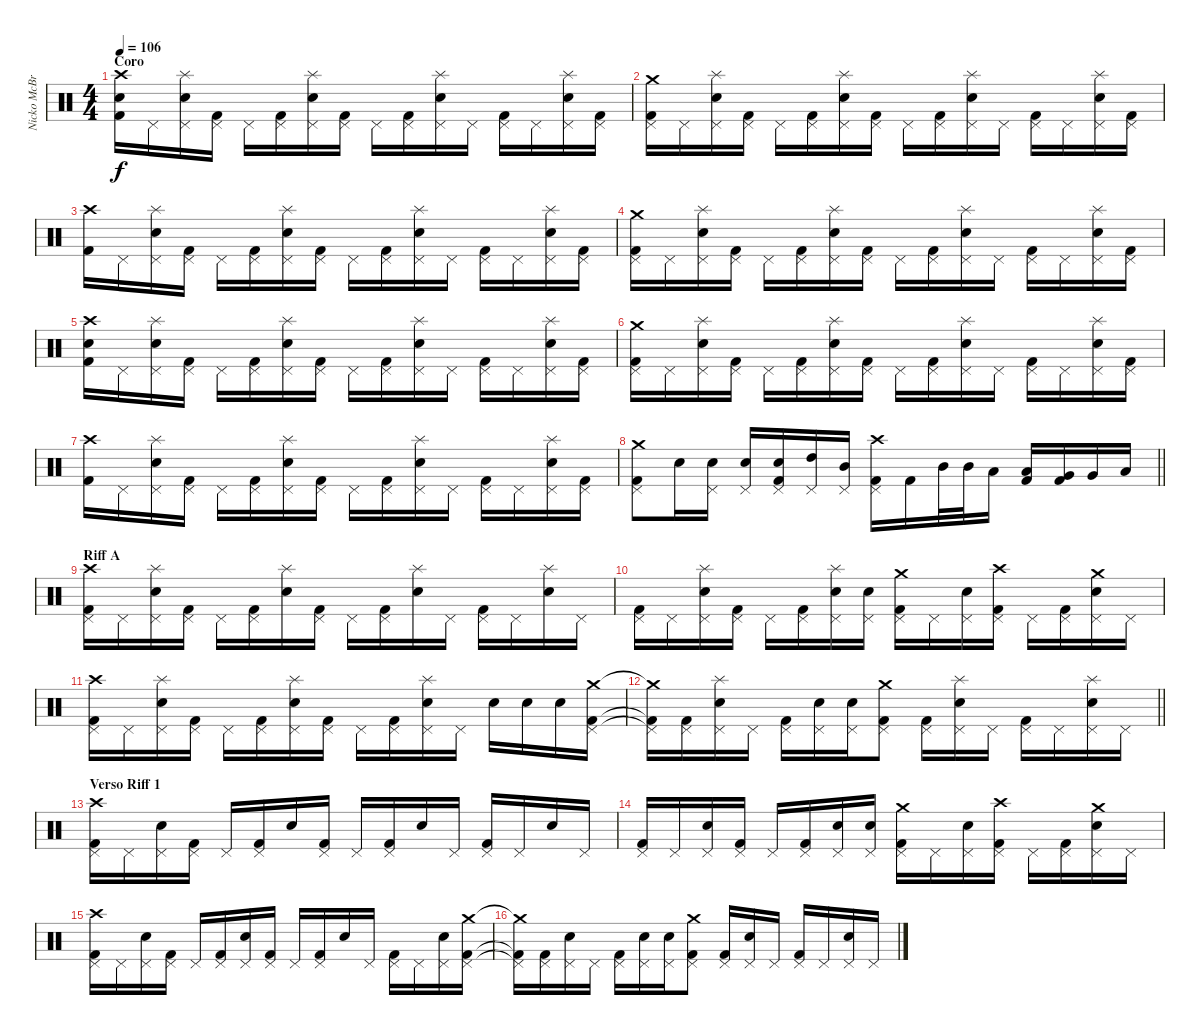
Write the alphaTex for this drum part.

\track ("Nicko McBrain" "Nicko McBr") {instrument percussion}
\staff {score}
\articulation defaults
\ts (4 4)
\section ("" "Coro")
\tempo 106
\clef neutral
\ks c
("Snare (hit) 2" "Crash high (hit)" "Kick (hit) 2").16{dy f} "Pedal Hi-Hat (hit)".16 ("Pedal Hi-Hat (hit)" "Snare (hit) 2" "Splash (hit)").16 ("Pedal Hi-Hat (hit)" "Kick (hit) 2").16 "Pedal Hi-Hat (hit)".16 ("Pedal Hi-Hat (hit)" "Kick (hit) 2").16 ("Pedal Hi-Hat (hit)" "Snare (hit) 2" "Splash (hit)").16 ("Pedal Hi-Hat (hit)" "Kick (hit) 2").16 "Pedal Hi-Hat (hit)".16 ("Pedal Hi-Hat (hit)" "Kick (hit) 2").16 ("Pedal Hi-Hat (hit)" "Snare (hit) 2" "Splash (hit)").16 "Pedal Hi-Hat (hit)".16 ("Pedal Hi-Hat (hit)" "Kick (hit) 2").16 "Pedal Hi-Hat (hit)".16 ("Pedal Hi-Hat (hit)" "Snare (hit) 2" "Splash (hit)").16 ("Pedal Hi-Hat (hit)" "Kick (hit) 2").16 |
("Pedal Hi-Hat (hit)" "Crash medium (hit)" "Kick (hit) 2").16 "Pedal Hi-Hat (hit)".16 ("Pedal Hi-Hat (hit)" "Snare (hit) 2" "Splash (hit)").16 ("Pedal Hi-Hat (hit)" "Kick (hit) 2").16 "Pedal Hi-Hat (hit)".16 ("Pedal Hi-Hat (hit)" "Kick (hit) 2").16 ("Pedal Hi-Hat (hit)" "Snare (hit) 2" "Splash (hit)").16 ("Pedal Hi-Hat (hit)" "Kick (hit) 2").16 "Pedal Hi-Hat (hit)".16 ("Pedal Hi-Hat (hit)" "Kick (hit) 2").16 ("Pedal Hi-Hat (hit)" "Snare (hit) 2" "Splash (hit)").16 "Pedal Hi-Hat (hit)".16 ("Pedal Hi-Hat (hit)" "Kick (hit) 2").16 "Pedal Hi-Hat (hit)".16 ("Pedal Hi-Hat (hit)" "Snare (hit) 2" "Splash (hit)").16 ("Pedal Hi-Hat (hit)" "Kick (hit) 2").16 |
("Crash high (hit)" "Kick (hit) 2").16 "Pedal Hi-Hat (hit)".16 ("Pedal Hi-Hat (hit)" "Snare (hit) 2" "Splash (hit)").16 ("Pedal Hi-Hat (hit)" "Kick (hit) 2").16 "Pedal Hi-Hat (hit)".16 ("Pedal Hi-Hat (hit)" "Kick (hit) 2").16 ("Pedal Hi-Hat (hit)" "Snare (hit) 2" "Splash (hit)").16 ("Pedal Hi-Hat (hit)" "Kick (hit) 2").16 "Pedal Hi-Hat (hit)".16 ("Pedal Hi-Hat (hit)" "Kick (hit) 2").16 ("Pedal Hi-Hat (hit)" "Snare (hit) 2" "Splash (hit)").16 "Pedal Hi-Hat (hit)".16 ("Pedal Hi-Hat (hit)" "Kick (hit) 2").16 "Pedal Hi-Hat (hit)".16 ("Pedal Hi-Hat (hit)" "Snare (hit) 2" "Splash (hit)").16 ("Pedal Hi-Hat (hit)" "Kick (hit) 2").16 |
("Pedal Hi-Hat (hit)" "Crash medium (hit)" "Kick (hit) 2").16 "Pedal Hi-Hat (hit)".16 ("Pedal Hi-Hat (hit)" "Snare (hit) 2" "Splash (hit)").16 ("Pedal Hi-Hat (hit)" "Kick (hit) 2").16 "Pedal Hi-Hat (hit)".16 ("Pedal Hi-Hat (hit)" "Kick (hit) 2").16 ("Pedal Hi-Hat (hit)" "Snare (hit) 2" "Splash (hit)").16 ("Pedal Hi-Hat (hit)" "Kick (hit) 2").16 "Pedal Hi-Hat (hit)".16 ("Pedal Hi-Hat (hit)" "Kick (hit) 2").16 ("Pedal Hi-Hat (hit)" "Snare (hit) 2" "Splash (hit)").16 "Pedal Hi-Hat (hit)".16 ("Pedal Hi-Hat (hit)" "Kick (hit) 2").16 "Pedal Hi-Hat (hit)".16 ("Pedal Hi-Hat (hit)" "Snare (hit) 2" "Splash (hit)").16 ("Pedal Hi-Hat (hit)" "Kick (hit) 2").16 |
("Snare (hit) 2" "Crash high (hit)" "Kick (hit) 2").16 "Pedal Hi-Hat (hit)".16 ("Pedal Hi-Hat (hit)" "Snare (hit) 2" "Splash (hit)").16 ("Pedal Hi-Hat (hit)" "Kick (hit) 2").16 "Pedal Hi-Hat (hit)".16 ("Pedal Hi-Hat (hit)" "Kick (hit) 2").16 ("Pedal Hi-Hat (hit)" "Snare (hit) 2" "Splash (hit)").16 ("Pedal Hi-Hat (hit)" "Kick (hit) 2").16 "Pedal Hi-Hat (hit)".16 ("Pedal Hi-Hat (hit)" "Kick (hit) 2").16 ("Pedal Hi-Hat (hit)" "Snare (hit) 2" "Splash (hit)").16 "Pedal Hi-Hat (hit)".16 ("Pedal Hi-Hat (hit)" "Kick (hit) 2").16 "Pedal Hi-Hat (hit)".16 ("Pedal Hi-Hat (hit)" "Snare (hit) 2" "Splash (hit)").16 ("Pedal Hi-Hat (hit)" "Kick (hit) 2").16 |
("Pedal Hi-Hat (hit)" "Crash medium (hit)" "Kick (hit) 2").16 "Pedal Hi-Hat (hit)".16 ("Pedal Hi-Hat (hit)" "Snare (hit) 2" "Splash (hit)").16 ("Pedal Hi-Hat (hit)" "Kick (hit) 2").16 "Pedal Hi-Hat (hit)".16 ("Pedal Hi-Hat (hit)" "Kick (hit) 2").16 ("Pedal Hi-Hat (hit)" "Snare (hit) 2" "Splash (hit)").16 ("Pedal Hi-Hat (hit)" "Kick (hit) 2").16 "Pedal Hi-Hat (hit)".16 ("Pedal Hi-Hat (hit)" "Kick (hit) 2").16 ("Pedal Hi-Hat (hit)" "Snare (hit) 2" "Splash (hit)").16 "Pedal Hi-Hat (hit)".16 ("Pedal Hi-Hat (hit)" "Kick (hit) 2").16 "Pedal Hi-Hat (hit)".16 ("Pedal Hi-Hat (hit)" "Snare (hit) 2" "Splash (hit)").16 ("Pedal Hi-Hat (hit)" "Kick (hit) 2").16 |
("Crash high (hit)" "Kick (hit) 2").16 "Pedal Hi-Hat (hit)".16 ("Pedal Hi-Hat (hit)" "Snare (hit) 2" "Splash (hit)").16 ("Pedal Hi-Hat (hit)" "Kick (hit) 2").16 "Pedal Hi-Hat (hit)".16 ("Pedal Hi-Hat (hit)" "Kick (hit) 2").16 ("Pedal Hi-Hat (hit)" "Snare (hit) 2" "Splash (hit)").16 ("Pedal Hi-Hat (hit)" "Kick (hit) 2").16 "Pedal Hi-Hat (hit)".16 ("Pedal Hi-Hat (hit)" "Kick (hit) 2").16 ("Pedal Hi-Hat (hit)" "Snare (hit) 2" "Splash (hit)").16 "Pedal Hi-Hat (hit)".16 ("Pedal Hi-Hat (hit)" "Kick (hit) 2").16 "Pedal Hi-Hat (hit)".16 ("Pedal Hi-Hat (hit)" "Snare (hit) 2" "Splash (hit)").16 ("Pedal Hi-Hat (hit)" "Kick (hit) 2").16 |
\barLineRight lightlight
("Pedal Hi-Hat (hit)" "Crash medium (hit)" "Kick (hit) 2").8 "Snare (hit) 2".16 ("Pedal Hi-Hat (hit)" "Snare (hit) 2").16 ("Pedal Hi-Hat (hit)" "Snare (hit) 2").16 ("Pedal Hi-Hat (hit)" "Snare (hit) 2" "Kick (hit) 2").16 ("Pedal Hi-Hat (hit)" "High Tom (hit)").16 ("Pedal Hi-Hat (hit)" "Mid Tom (hit)").16 ("Pedal Hi-Hat (hit)" "Crash high (hit)" "Kick (hit) 2").16 "Kick (hit) 2".16 "Mid Tom (hit)".32 "Mid Tom (hit)".32 "Low Tom (hit)".16 ("Low Tom (hit)" "Kick (hit) 2").16 ("Very Low Tom (hit)" "Kick (hit) 2").16 "Very Low Tom (hit)".16 "Low Floor Tom (hit)".16 |
\section ("" "Riff A")
("Pedal Hi-Hat (hit)" "Crash high (hit)" "Kick (hit) 2").16 "Pedal Hi-Hat (hit)".16 ("Pedal Hi-Hat (hit)" "Snare (hit) 2" "Splash (hit)").16 ("Pedal Hi-Hat (hit)" "Kick (hit) 2").16 "Pedal Hi-Hat (hit)".16 ("Pedal Hi-Hat (hit)" "Kick (hit) 2").16 ("Snare (hit) 2" "Splash (hit)").16 ("Pedal Hi-Hat (hit)" "Kick (hit) 2").16 "Pedal Hi-Hat (hit)".16 ("Pedal Hi-Hat (hit)" "Kick (hit) 2").16 ("Snare (hit) 2" "Splash (hit)").16 "Pedal Hi-Hat (hit)".16 ("Pedal Hi-Hat (hit)" "Kick (hit) 2").16 "Pedal Hi-Hat (hit)".16 ("Snare (hit) 2" "Splash (hit)").16 "Pedal Hi-Hat (hit)".16 |
("Pedal Hi-Hat (hit)" "Kick (hit) 2").16 "Pedal Hi-Hat (hit)".16 ("Pedal Hi-Hat (hit)" "Snare (hit) 2" "Splash (hit)").16 ("Pedal Hi-Hat (hit)" "Kick (hit) 2").16 "Pedal Hi-Hat (hit)".16 ("Pedal Hi-Hat (hit)" "Kick (hit) 2").16 ("Pedal Hi-Hat (hit)" "Snare (hit) 2" "Splash (hit)").16 ("Pedal Hi-Hat (hit)" "Snare (hit) 2").16 ("Pedal Hi-Hat (hit)" "Crash medium (hit)" "Kick (hit) 2").16 "Pedal Hi-Hat (hit)".16 ("Pedal Hi-Hat (hit)" "Snare (hit) 2").16 ("Pedal Hi-Hat (hit)" "Crash high (hit)" "Kick (hit) 2").16 "Pedal Hi-Hat (hit)".16 ("Pedal Hi-Hat (hit)" "Kick (hit) 2").16 ("Pedal Hi-Hat (hit)" "Snare (hit) 2" "Crash medium (hit)").16 "Pedal Hi-Hat (hit)".16 |
("Pedal Hi-Hat (hit)" "Crash high (hit)" "Kick (hit) 2").16 "Pedal Hi-Hat (hit)".16 ("Pedal Hi-Hat (hit)" "Snare (hit) 2" "Splash (hit)").16 ("Pedal Hi-Hat (hit)" "Kick (hit) 2").16 "Pedal Hi-Hat (hit)".16 ("Pedal Hi-Hat (hit)" "Kick (hit) 2").16 ("Pedal Hi-Hat (hit)" "Snare (hit) 2" "Splash (hit)").16 ("Pedal Hi-Hat (hit)" "Kick (hit) 2").16 "Pedal Hi-Hat (hit)".16 ("Pedal Hi-Hat (hit)" "Kick (hit) 2").16 ("Pedal Hi-Hat (hit)" "Snare (hit) 2" "Splash (hit)").16 "Pedal Hi-Hat (hit)".16 "Snare (hit) 2".16 "Snare (hit) 2".16 "Snare (hit) 2".16 ("Pedal Hi-Hat (hit)" "Crash medium (hit)" "Kick (hit) 2").16 |
\barLineRight lightlight
("Pedal Hi-Hat (hit)"{t} "Crash medium (hit)"{t} "Kick (hit) 2"{t}).16 ("Pedal Hi-Hat (hit)" "Kick (hit) 2").16 ("Pedal Hi-Hat (hit)" "Snare (hit) 2" "Splash (hit)").16 "Pedal Hi-Hat (hit)".16 ("Pedal Hi-Hat (hit)" "Kick (hit) 2").16 ("Pedal Hi-Hat (hit)" "Snare (hit) 2").16 ("Pedal Hi-Hat (hit)" "Snare (hit) 2").16 ("Pedal Hi-Hat (hit)" "Crash medium (hit)" "Kick (hit) 2").8 ("Pedal Hi-Hat (hit)" "Kick (hit) 2").16 ("Pedal Hi-Hat (hit)" "Snare (hit) 2" "Splash (hit)").16 "Pedal Hi-Hat (hit)".16 ("Pedal Hi-Hat (hit)" "Kick (hit) 2").16 "Pedal Hi-Hat (hit)".16 ("Pedal Hi-Hat (hit)" "Snare (hit) 2" "Splash (hit)").16 "Pedal Hi-Hat (hit)".16 |
\section ("" "Verso Riff 1")
("Pedal Hi-Hat (hit)" "Crash high (hit)" "Kick (hit) 2").16 "Pedal Hi-Hat (hit)".16 ("Pedal Hi-Hat (hit)" "Snare (hit) 2").16 ("Pedal Hi-Hat (hit)" "Kick (hit) 2").16 "Pedal Hi-Hat (hit)".16 ("Pedal Hi-Hat (hit)" "Kick (hit) 2").16 "Snare (hit) 2".16 ("Pedal Hi-Hat (hit)" "Kick (hit) 2").16 "Pedal Hi-Hat (hit)".16 ("Pedal Hi-Hat (hit)" "Kick (hit) 2").16 "Snare (hit) 2".16 "Pedal Hi-Hat (hit)".16 ("Pedal Hi-Hat (hit)" "Kick (hit) 2").16 "Pedal Hi-Hat (hit)".16 "Snare (hit) 2".16 "Pedal Hi-Hat (hit)".16 |
("Pedal Hi-Hat (hit)" "Kick (hit) 2").16 "Pedal Hi-Hat (hit)".16 ("Pedal Hi-Hat (hit)" "Snare (hit) 2").16 ("Pedal Hi-Hat (hit)" "Kick (hit) 2").16 "Pedal Hi-Hat (hit)".16 ("Pedal Hi-Hat (hit)" "Kick (hit) 2").16 ("Pedal Hi-Hat (hit)" "Snare (hit) 2").16 ("Pedal Hi-Hat (hit)" "Snare (hit) 2").16 ("Pedal Hi-Hat (hit)" "Crash medium (hit)" "Kick (hit) 2").16 "Pedal Hi-Hat (hit)".16 ("Pedal Hi-Hat (hit)" "Snare (hit) 2").16 ("Pedal Hi-Hat (hit)" "Crash high (hit)" "Kick (hit) 2").16 "Pedal Hi-Hat (hit)".16 ("Pedal Hi-Hat (hit)" "Kick (hit) 2").16 ("Pedal Hi-Hat (hit)" "Snare (hit) 2" "Crash medium (hit)").16 "Pedal Hi-Hat (hit)".16 |
("Pedal Hi-Hat (hit)" "Crash high (hit)" "Kick (hit) 2").16 "Pedal Hi-Hat (hit)".16 ("Pedal Hi-Hat (hit)" "Snare (hit) 2").16 ("Pedal Hi-Hat (hit)" "Kick (hit) 2").16 "Pedal Hi-Hat (hit)".16 ("Pedal Hi-Hat (hit)" "Kick (hit) 2").16 ("Pedal Hi-Hat (hit)" "Snare (hit) 2").16 ("Pedal Hi-Hat (hit)" "Kick (hit) 2").16 "Pedal Hi-Hat (hit)".16 ("Pedal Hi-Hat (hit)" "Kick (hit) 2").16 "Snare (hit) 2".16 "Pedal Hi-Hat (hit)".16 ("Pedal Hi-Hat (hit)" "Kick (hit) 2").16 "Pedal Hi-Hat (hit)".16 ("Pedal Hi-Hat (hit)" "Snare (hit) 2").16 ("Pedal Hi-Hat (hit)" "Crash medium (hit)" "Kick (hit) 2").16 |
("Pedal Hi-Hat (hit)"{t} "Crash medium (hit)"{t} "Kick (hit) 2"{t}).16 ("Pedal Hi-Hat (hit)" "Kick (hit) 2").16 ("Pedal Hi-Hat (hit)" "Snare (hit) 2").16 "Pedal Hi-Hat (hit)".16 ("Pedal Hi-Hat (hit)" "Kick (hit) 2").16 ("Pedal Hi-Hat (hit)" "Snare (hit) 2").16 ("Pedal Hi-Hat (hit)" "Snare (hit) 2").16 ("Pedal Hi-Hat (hit)" "Crash medium (hit)" "Kick (hit) 2").8 ("Pedal Hi-Hat (hit)" "Kick (hit) 2").16 ("Pedal Hi-Hat (hit)" "Snare (hit) 2").16 "Pedal Hi-Hat (hit)".16 ("Pedal Hi-Hat (hit)" "Kick (hit) 2").16 "Pedal Hi-Hat (hit)".16 ("Pedal Hi-Hat (hit)" "Snare (hit) 2").16 "Pedal Hi-Hat (hit)".16
